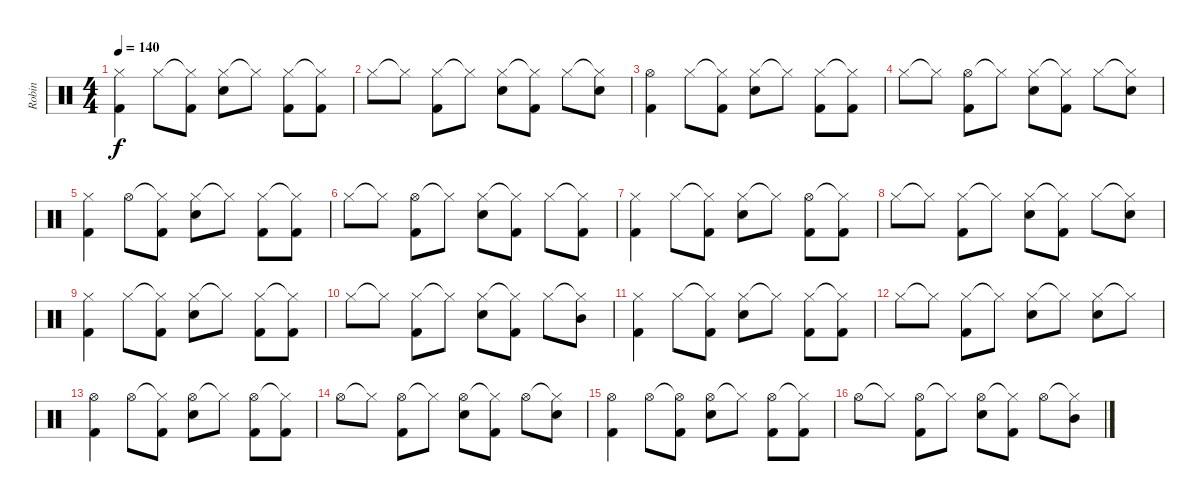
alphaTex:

\track ("Robin" "Robin") {instrument percussion}
\staff {score}
\articulation defaults
\ts (4 4)
\tempo 140
\clef neutral
\ks c
("Hi-Hat (closed)" "Kick (hit) 2").4{dy f} "Hi-Hat (closed)".8 ("Hi-Hat (closed)"{t} "Kick (hit) 2").8 ("Hi-Hat (closed)" "Snare (hit) 2").8 "Hi-Hat (closed)"{t}.8 ("Hi-Hat (closed)" "Kick (hit) 2").8 ("Hi-Hat (closed)"{t} "Kick (hit) 2").8 |
"Hi-Hat (closed)".8 "Hi-Hat (closed)"{t}.8 ("Hi-Hat (closed)" "Kick (hit) 2").8 "Hi-Hat (closed)"{t}.8 ("Hi-Hat (closed)" "Snare (hit) 2").8 ("Hi-Hat (closed)"{t} "Kick (hit) 2").8 "Hi-Hat (closed)".8 ("Hi-Hat (closed)"{t} "Snare (hit) 2").8 |
("Hi-Hat (open)" "Kick (hit) 2").4 "Hi-Hat (closed)".8 ("Hi-Hat (closed)"{t} "Kick (hit) 2").8 ("Hi-Hat (closed)" "Snare (hit) 2").8 "Hi-Hat (closed)"{t}.8 ("Hi-Hat (closed)" "Kick (hit) 2").8 ("Hi-Hat (closed)"{t} "Kick (hit) 2").8 |
"Hi-Hat (closed)".8 "Hi-Hat (closed)"{t}.8 ("Hi-Hat (open)" "Kick (hit) 2").8 "Hi-Hat (closed)"{t}.8 ("Hi-Hat (closed)" "Snare (hit) 2").8 ("Hi-Hat (closed)"{t} "Kick (hit) 2").8 "Hi-Hat (closed)".8 ("Hi-Hat (closed)"{t} "Snare (hit) 2").8 |
("Hi-Hat (closed)" "Kick (hit) 2").4 "Hi-Hat (open)".8 ("Hi-Hat (closed)"{t} "Kick (hit) 2").8 ("Hi-Hat (closed)" "Snare (hit) 2").8 "Hi-Hat (closed)"{t}.8 ("Hi-Hat (closed)" "Kick (hit) 2").8 ("Hi-Hat (closed)"{t} "Kick (hit) 2").8 |
"Hi-Hat (closed)".8 "Hi-Hat (closed)"{t}.8 ("Hi-Hat (open)" "Kick (hit) 2").8 "Hi-Hat (closed)"{t}.8 ("Hi-Hat (closed)" "Snare (hit) 2").8 ("Hi-Hat (closed)"{t} "Kick (hit) 2").8 "Hi-Hat (closed)".8 ("Hi-Hat (closed)"{t} "Kick (hit) 2").8 |
("Hi-Hat (closed)" "Kick (hit) 2").4 "Hi-Hat (closed)".8 ("Hi-Hat (closed)"{t} "Kick (hit) 2").8 ("Hi-Hat (closed)" "Snare (hit) 2").8 "Hi-Hat (closed)"{t}.8 ("Hi-Hat (open)" "Kick (hit) 2").8 ("Hi-Hat (closed)"{t} "Kick (hit) 2").8 |
"Hi-Hat (closed)".8 "Hi-Hat (closed)"{t}.8 ("Hi-Hat (closed)" "Kick (hit) 2").8 "Hi-Hat (closed)"{t}.8 ("Hi-Hat (closed)" "Snare (hit) 2").8 ("Hi-Hat (closed)"{t} "Kick (hit) 2").8 "Hi-Hat (closed)".8 ("Hi-Hat (closed)"{t} "Snare (hit) 2").8 |
("Hi-Hat (closed)" "Kick (hit) 2").4 "Hi-Hat (closed)".8 ("Hi-Hat (closed)"{t} "Kick (hit) 2").8 ("Hi-Hat (closed)" "Snare (hit) 2").8 "Hi-Hat (closed)"{t}.8 ("Hi-Hat (closed)" "Kick (hit) 2").8 ("Hi-Hat (closed)"{t} "Kick (hit) 2").8 |
"Hi-Hat (closed)".8 "Hi-Hat (closed)"{t}.8 ("Hi-Hat (closed)" "Kick (hit) 2").8 "Hi-Hat (closed)"{t}.8 ("Hi-Hat (closed)" "Snare (hit) 2").8 ("Hi-Hat (closed)"{t} "Kick (hit) 2").8 "Hi-Hat (closed)".8 ("Hi-Hat (closed)"{t} "Mid Tom (hit)").8 |
("Hi-Hat (closed)" "Kick (hit) 2").4 "Hi-Hat (closed)".8 ("Hi-Hat (closed)"{t} "Kick (hit) 2").8 ("Hi-Hat (closed)" "Snare (hit) 2").8 "Hi-Hat (closed)"{t}.8 ("Hi-Hat (closed)" "Kick (hit) 2").8 ("Hi-Hat (closed)"{t} "Kick (hit) 2").8 |
"Hi-Hat (closed)".8 "Hi-Hat (closed)"{t}.8 ("Hi-Hat (closed)" "Kick (hit) 2").8 "Hi-Hat (closed)"{t}.8 ("Hi-Hat (closed)" "Snare (hit) 2").8 "Hi-Hat (closed)"{t}.8 ("Hi-Hat (closed)" "Snare (hit) 2").8 "Hi-Hat (closed)"{t}.8 |
("Hi-Hat (open)" "Kick (hit) 2").4 "Hi-Hat (open)".8 ("Hi-Hat (closed)"{t} "Kick (hit) 2").8 ("Hi-Hat (open)" "Snare (hit) 2").8 "Hi-Hat (closed)"{t}.8 ("Hi-Hat (open)" "Kick (hit) 2").8 ("Hi-Hat (closed)"{t} "Kick (hit) 2").8 |
"Hi-Hat (open)".8 "Hi-Hat (closed)"{t}.8 ("Hi-Hat (open)" "Kick (hit) 2").8 "Hi-Hat (closed)"{t}.8 ("Hi-Hat (open)" "Snare (hit) 2").8 ("Hi-Hat (closed)"{t} "Kick (hit) 2").8 "Hi-Hat (open)".8 ("Hi-Hat (closed)"{t} "Snare (hit) 2").8 |
("Hi-Hat (open)" "Kick (hit) 2").4 "Hi-Hat (open)".8 ("Hi-Hat (open)"{t} "Kick (hit) 2").8 ("Hi-Hat (open)" "Snare (hit) 2").8 "Hi-Hat (closed)"{t}.8 ("Hi-Hat (open)" "Kick (hit) 2").8 ("Hi-Hat (closed)"{t} "Kick (hit) 2").8 |
"Hi-Hat (open)".8 "Hi-Hat (closed)"{t}.8 ("Hi-Hat (open)" "Kick (hit) 2").8 "Hi-Hat (closed)"{t}.8 ("Hi-Hat (open)" "Snare (hit) 2").8 ("Hi-Hat (closed)"{t} "Kick (hit) 2").8 "Hi-Hat (open)".8 ("Hi-Hat (closed)"{t} "Mid Tom (hit)").8
